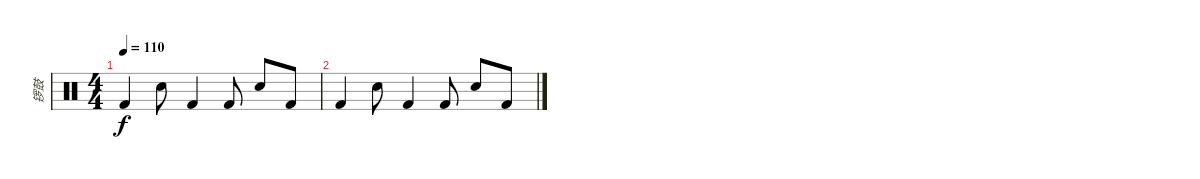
\track ("锣鼓" "锣鼓") {instrument percussion}
\staff {score}
\articulation defaults
\ts (4 4)
\tempo 110
\clef neutral
\ks c "Kick (hit) 2".4{dy f} "Snare (hit) 2".8 "Kick (hit) 2".4 "Kick (hit) 2".8 "Snare (hit) 2".8 "Kick (hit) 2".8
|
"Kick (hit) 2".4 "Snare (hit) 2".8 "Kick (hit) 2".4 "Kick (hit) 2".8 "Snare (hit) 2".8 "Kick (hit) 2".8
